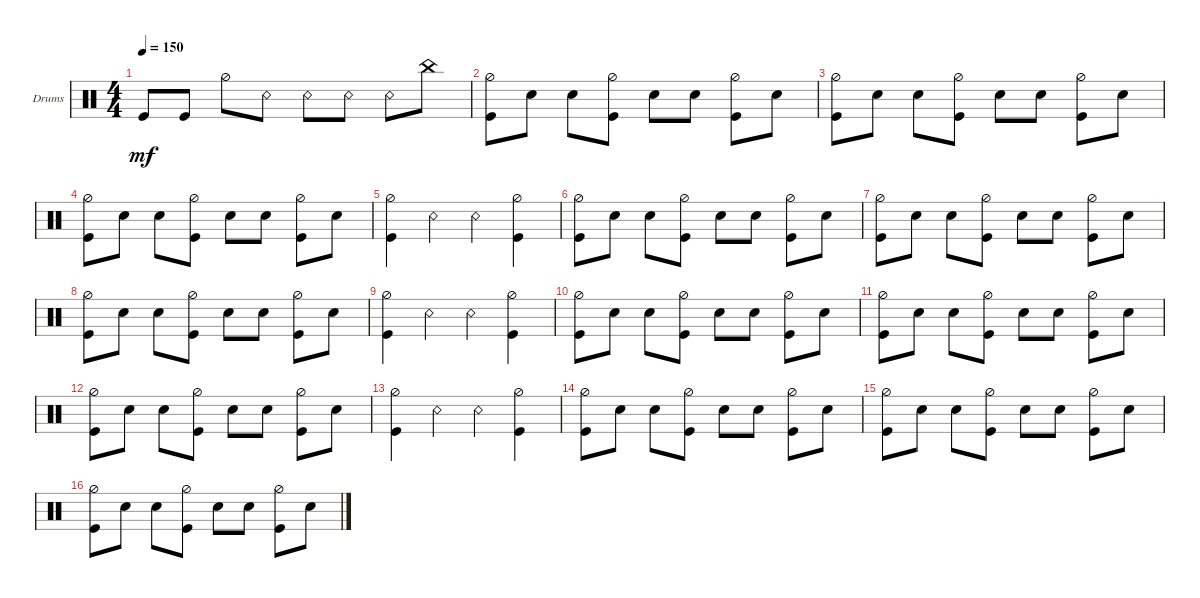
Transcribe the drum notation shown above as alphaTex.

\bracketExtendMode groupsimilarinstruments
\firstSystemTrackNameOrientation horizontal
\otherSystemsTrackNameOrientation horizontal
\track ("Drumkit" "Drums") {instrument percussion}
\staff {score}
\articulation defaults
\ts (4 4)
\tempo 150
\clef neutral
\ks c "Kick (hit)".8{dy mf} "Kick (hit)".8 "Hi-Hat (half)".8 "Snare (rim shot)".8 "Snare (rim shot)".8 "Snare (rim shot)".8 "Snare (rim shot)".8 "China (hit)".8
|
("Hi-Hat (half)" "Kick (hit)").8 "Snare (hit) 2".8 "Snare (hit) 2".8 ("Hi-Hat (half)" "Kick (hit)").8 "Snare (hit) 2".8 "Snare (hit) 2".8 ("Hi-Hat (half)" "Kick (hit)").8 "Snare (hit) 2".8 |
("Hi-Hat (half)" "Kick (hit)").8 "Snare (hit) 2".8 "Snare (hit) 2".8 ("Hi-Hat (half)" "Kick (hit)").8 "Snare (hit) 2".8 "Snare (hit) 2".8 ("Hi-Hat (half)" "Kick (hit)").8 "Snare (hit) 2".8 |
("Hi-Hat (half)" "Kick (hit)").8 "Snare (hit) 2".8 "Snare (hit) 2".8 ("Hi-Hat (half)" "Kick (hit)").8 "Snare (hit) 2".8 "Snare (hit) 2".8 ("Hi-Hat (half)" "Kick (hit)").8 "Snare (hit) 2".8 |
("Hi-Hat (half)" "Kick (hit)").4 "Snare (rim shot)".4 "Snare (rim shot)".4 ("Hi-Hat (half)" "Kick (hit)").4 |
("Hi-Hat (half)" "Kick (hit)").8 "Snare (hit) 2".8 "Snare (hit) 2".8 ("Hi-Hat (half)" "Kick (hit)").8 "Snare (hit) 2".8 "Snare (hit) 2".8 ("Hi-Hat (half)" "Kick (hit)").8 "Snare (hit) 2".8 |
("Hi-Hat (half)" "Kick (hit)").8 "Snare (hit) 2".8 "Snare (hit) 2".8 ("Hi-Hat (half)" "Kick (hit)").8 "Snare (hit) 2".8 "Snare (hit) 2".8 ("Hi-Hat (half)" "Kick (hit)").8 "Snare (hit) 2".8 |
("Hi-Hat (half)" "Kick (hit)").8 "Snare (hit) 2".8 "Snare (hit) 2".8 ("Hi-Hat (half)" "Kick (hit)").8 "Snare (hit) 2".8 "Snare (hit) 2".8 ("Hi-Hat (half)" "Kick (hit)").8 "Snare (hit) 2".8 |
("Hi-Hat (half)" "Kick (hit)").4 "Snare (rim shot)".4 "Snare (rim shot)".4 ("Hi-Hat (half)" "Kick (hit)").4 |
("Hi-Hat (half)" "Kick (hit)").8 "Snare (hit) 2".8 "Snare (hit) 2".8 ("Hi-Hat (half)" "Kick (hit)").8 "Snare (hit) 2".8 "Snare (hit) 2".8 ("Hi-Hat (half)" "Kick (hit)").8 "Snare (hit) 2".8 |
("Hi-Hat (half)" "Kick (hit)").8 "Snare (hit) 2".8 "Snare (hit) 2".8 ("Hi-Hat (half)" "Kick (hit)").8 "Snare (hit) 2".8 "Snare (hit) 2".8 ("Hi-Hat (half)" "Kick (hit)").8 "Snare (hit) 2".8 |
("Hi-Hat (half)" "Kick (hit)").8 "Snare (hit) 2".8 "Snare (hit) 2".8 ("Hi-Hat (half)" "Kick (hit)").8 "Snare (hit) 2".8 "Snare (hit) 2".8 ("Hi-Hat (half)" "Kick (hit)").8 "Snare (hit) 2".8 |
("Hi-Hat (half)" "Kick (hit)").4 "Snare (rim shot)".4 "Snare (rim shot)".4 ("Hi-Hat (half)" "Kick (hit)").4 |
("Hi-Hat (half)" "Kick (hit)").8 "Snare (hit) 2".8 "Snare (hit) 2".8 ("Hi-Hat (half)" "Kick (hit)").8 "Snare (hit) 2".8 "Snare (hit) 2".8 ("Hi-Hat (half)" "Kick (hit)").8 "Snare (hit) 2".8 |
("Hi-Hat (half)" "Kick (hit)").8 "Snare (hit) 2".8 "Snare (hit) 2".8 ("Hi-Hat (half)" "Kick (hit)").8 "Snare (hit) 2".8 "Snare (hit) 2".8 ("Hi-Hat (half)" "Kick (hit)").8 "Snare (hit) 2".8 |
("Hi-Hat (half)" "Kick (hit)").8 "Snare (hit) 2".8 "Snare (hit) 2".8 ("Hi-Hat (half)" "Kick (hit)").8 "Snare (hit) 2".8 "Snare (hit) 2".8 ("Hi-Hat (half)" "Kick (hit)").8 "Snare (hit) 2".8
